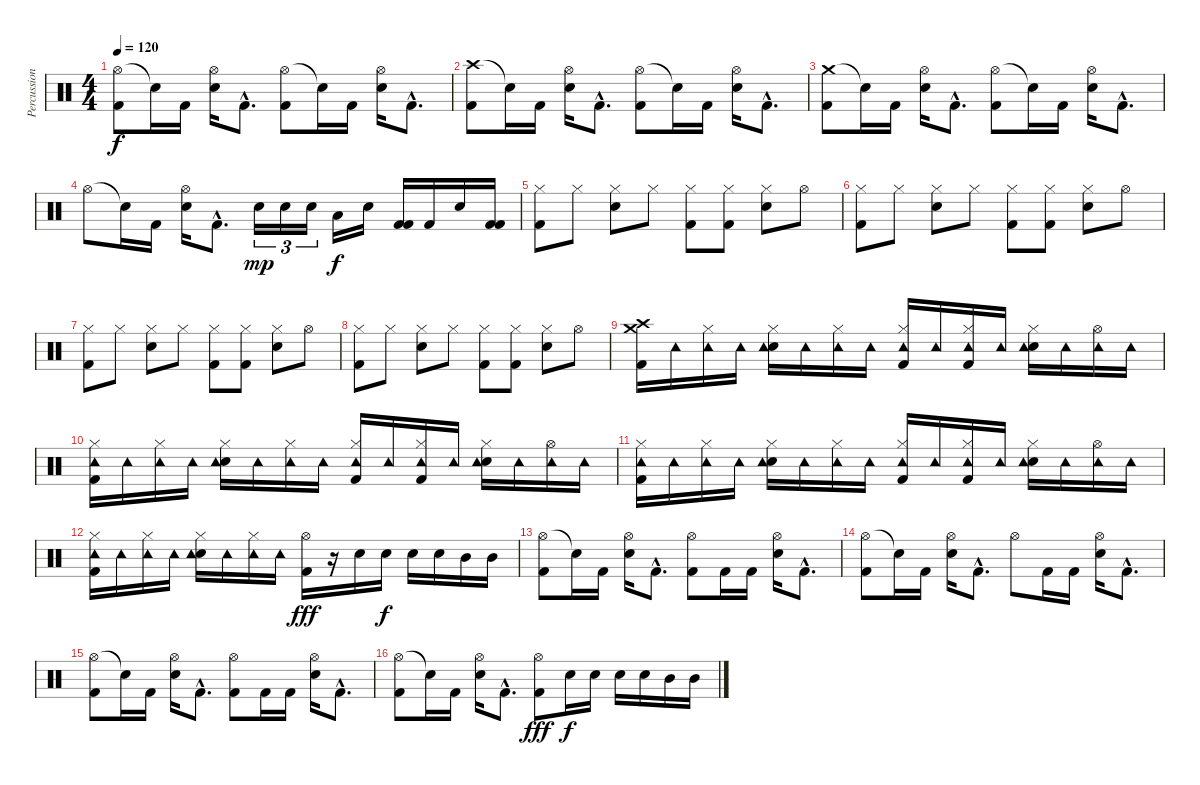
\track ("Percussion" "Percussion") {instrument percussion}
\staff {score}
\articulation defaults
\ts (4 4)
\tempo 120
\clef neutral
\ks c
("Hi-Hat (open)" "Kick (hit) 2").8{dy f} "Snare (hit)"{t}.16 "Kick (hit) 2".16 ("Hi-Hat (open)" "Snare (hit) 2").16 "Kick (hit) 2"{hac}.8{d} ("Hi-Hat (open)" "Kick (hit) 2").8 "Snare (hit)"{t}.16 "Kick (hit) 2".16 ("Hi-Hat (open)" "Snare (hit) 2").16 "Kick (hit) 2"{hac}.8{d} |
("Crash high (hit)" "Kick (hit) 2").8 "Snare (hit)"{t}.16 "Kick (hit) 2".16 ("Hi-Hat (open)" "Snare (hit) 2").16 "Kick (hit) 2"{hac}.8{d} ("Hi-Hat (open)" "Kick (hit) 2").8 "Snare (hit)"{t}.16 "Kick (hit) 2".16 ("Hi-Hat (open)" "Snare (hit) 2").16 "Kick (hit) 2"{hac}.8{d} |
("Crash medium (hit)" "Kick (hit) 2").8 "Snare (hit)"{t}.16 "Kick (hit) 2".16 ("Hi-Hat (open)" "Snare (hit) 2").16 "Kick (hit) 2"{hac}.8{d} ("Hi-Hat (open)" "Kick (hit) 2").8 "Snare (hit)"{t}.16 "Kick (hit) 2".16 ("Hi-Hat (open)" "Snare (hit) 2").16 "Kick (hit) 2"{hac}.8{d} |
"Hi-Hat (open)".8 "Snare (hit)"{t}.16 "Kick (hit) 2".16 ("Hi-Hat (open)" "Snare (hit) 2").16 "Kick (hit) 2"{hac}.8{d} "Snare (hit) 2".16{tu (3 2) dy mp} "Snare (hit) 2".16{tu (3 2)} "Snare (hit) 2".16{tu (3 2)} "Low Tom (hit)".16{dy f} "Snare (hit) 2".16 ("Kick (hit) 2" "Kick (hit) 2").16 "Kick (hit) 2".16 "Snare (hit) 2".16 ("Kick (hit) 2" "Kick (hit) 2").16 |
("Kick (hit) 2" "Hi-Hat (closed)").8 "Hi-Hat (closed)".8 ("Snare (hit) 2" "Hi-Hat (closed)").8 "Hi-Hat (closed)".8 ("Kick (hit) 2" "Hi-Hat (closed)").8 ("Kick (hit) 2" "Hi-Hat (closed)").8 ("Snare (hit) 2" "Hi-Hat (closed)").8 "Hi-Hat (open)".8 |
("Kick (hit) 2" "Hi-Hat (closed)").8 "Hi-Hat (closed)".8 ("Snare (hit) 2" "Hi-Hat (closed)").8 "Hi-Hat (closed)".8 ("Kick (hit) 2" "Hi-Hat (closed)").8 ("Kick (hit) 2" "Hi-Hat (closed)").8 ("Snare (hit) 2" "Hi-Hat (closed)").8 "Hi-Hat (open)".8 |
("Kick (hit) 2" "Hi-Hat (closed)").8 "Hi-Hat (closed)".8 ("Snare (hit) 2" "Hi-Hat (closed)").8 "Hi-Hat (closed)".8 ("Kick (hit) 2" "Hi-Hat (closed)").8 ("Kick (hit) 2" "Hi-Hat (closed)").8 ("Snare (hit) 2" "Hi-Hat (closed)").8 "Hi-Hat (open)".8 |
("Kick (hit) 2" "Hi-Hat (closed)").8 "Hi-Hat (closed)".8 ("Snare (hit) 2" "Hi-Hat (closed)").8 "Hi-Hat (closed)".8 ("Kick (hit) 2" "Hi-Hat (closed)").8 ("Kick (hit) 2" "Hi-Hat (closed)").8 ("Snare (hit) 2" "Hi-Hat (closed)").8 "Hi-Hat (open)".8 |
("Kick (hit) 2" "Crash high (hit)" "Crash medium (hit)").16 "Tambourine (hit)".16 ("Hi-Hat (closed)" "Tambourine (hit)").16 "Tambourine (hit)".16 ("Snare (hit) 2" "Hi-Hat (closed)" "Tambourine (hit)").16 "Tambourine (hit)".16 ("Hi-Hat (closed)" "Tambourine (hit)").16 "Tambourine (hit)".16 ("Kick (hit) 2" "Hi-Hat (closed)" "Tambourine (hit)").16 "Tambourine (hit)".16 ("Kick (hit) 2" "Hi-Hat (closed)" "Tambourine (hit)").16 "Tambourine (hit)".16 ("Snare (hit) 2" "Hi-Hat (closed)" "Tambourine (hit)").16 "Tambourine (hit)".16 ("Hi-Hat (open)" "Tambourine (hit)").16 "Tambourine (hit)".16 |
("Kick (hit) 2" "Hi-Hat (closed)" "Tambourine (hit)").16 "Tambourine (hit)".16 ("Hi-Hat (closed)" "Tambourine (hit)").16 "Tambourine (hit)".16 ("Snare (hit) 2" "Hi-Hat (closed)" "Tambourine (hit)").16 "Tambourine (hit)".16 ("Hi-Hat (closed)" "Tambourine (hit)").16 "Tambourine (hit)".16 ("Kick (hit) 2" "Hi-Hat (closed)" "Tambourine (hit)").16 "Tambourine (hit)".16 ("Kick (hit) 2" "Hi-Hat (closed)" "Tambourine (hit)").16 "Tambourine (hit)".16 ("Snare (hit) 2" "Hi-Hat (closed)" "Tambourine (hit)").16 "Tambourine (hit)".16 ("Hi-Hat (open)" "Tambourine (hit)").16 "Tambourine (hit)".16 |
("Kick (hit) 2" "Hi-Hat (closed)" "Tambourine (hit)").16 "Tambourine (hit)".16 ("Hi-Hat (closed)" "Tambourine (hit)").16 "Tambourine (hit)".16 ("Snare (hit) 2" "Hi-Hat (closed)" "Tambourine (hit)").16 "Tambourine (hit)".16 ("Hi-Hat (closed)" "Tambourine (hit)").16 "Tambourine (hit)".16 ("Kick (hit) 2" "Hi-Hat (closed)" "Tambourine (hit)").16 "Tambourine (hit)".16 ("Kick (hit) 2" "Hi-Hat (closed)" "Tambourine (hit)").16 "Tambourine (hit)".16 ("Snare (hit) 2" "Hi-Hat (closed)" "Tambourine (hit)").16 "Tambourine (hit)".16 ("Hi-Hat (open)" "Tambourine (hit)").16 "Tambourine (hit)".16 |
("Kick (hit) 2" "Hi-Hat (closed)" "Tambourine (hit)").16 "Tambourine (hit)".16 ("Hi-Hat (closed)" "Tambourine (hit)").16 "Tambourine (hit)".16 ("Snare (hit) 2" "Hi-Hat (closed)" "Tambourine (hit)").16 "Tambourine (hit)".16 ("Hi-Hat (closed)" "Tambourine (hit)").16 "Tambourine (hit)".16 ("Kick (hit) 2" "Hi-Hat (open)").16{dy fff} r.16 "Snare (hit) 2".16 "Snare (hit) 2".16{dy f} "Snare (hit) 2".16 "Snare (hit) 2".16 "Mid Tom (hit)".16 "Mid Tom (hit)".16 |
("Hi-Hat (open)" "Kick (hit) 2").8{volume 16} "Snare (hit)"{t}.16 "Kick (hit) 2".16 ("Hi-Hat (open)" "Snare (hit) 2").16 "Kick (hit) 2"{hac}.8{d} ("Hi-Hat (open)" "Kick (hit) 2").8 "Kick (hit) 2".16 "Kick (hit) 2".16 ("Hi-Hat (open)" "Snare (hit) 2").16 "Kick (hit) 2"{hac}.8{d} |
("Hi-Hat (open)" "Kick (hit) 2").8 "Snare (hit)"{t}.16 "Kick (hit) 2".16 ("Hi-Hat (open)" "Snare (hit) 2").16 "Kick (hit) 2"{hac}.8{d} "Hi-Hat (open)".8 "Kick (hit) 2".16 "Kick (hit) 2".16 ("Hi-Hat (open)" "Snare (hit) 2").16 "Kick (hit) 2"{hac}.8{d} |
("Hi-Hat (open)" "Kick (hit) 2").8 "Snare (hit)"{t}.16 "Kick (hit) 2".16 ("Hi-Hat (open)" "Snare (hit) 2").16 "Kick (hit) 2"{hac}.8{d} ("Hi-Hat (open)" "Kick (hit) 2").8 "Kick (hit) 2".16 "Kick (hit) 2".16 ("Hi-Hat (open)" "Snare (hit) 2").16 "Kick (hit) 2"{hac}.8{d} |
("Hi-Hat (open)" "Kick (hit) 2").8 "Snare (hit)"{t}.16 "Kick (hit) 2".16 ("Hi-Hat (open)" "Snare (hit) 2").16 "Kick (hit) 2"{hac}.8{d} ("Hi-Hat (open)" "Kick (hit) 2").8{dy fff} "Snare (hit) 2".16{dy f} "Snare (hit) 2".16 "Snare (hit) 2".16 "Snare (hit) 2".16 "Mid Tom (hit)".16 "Mid Tom (hit)".16
